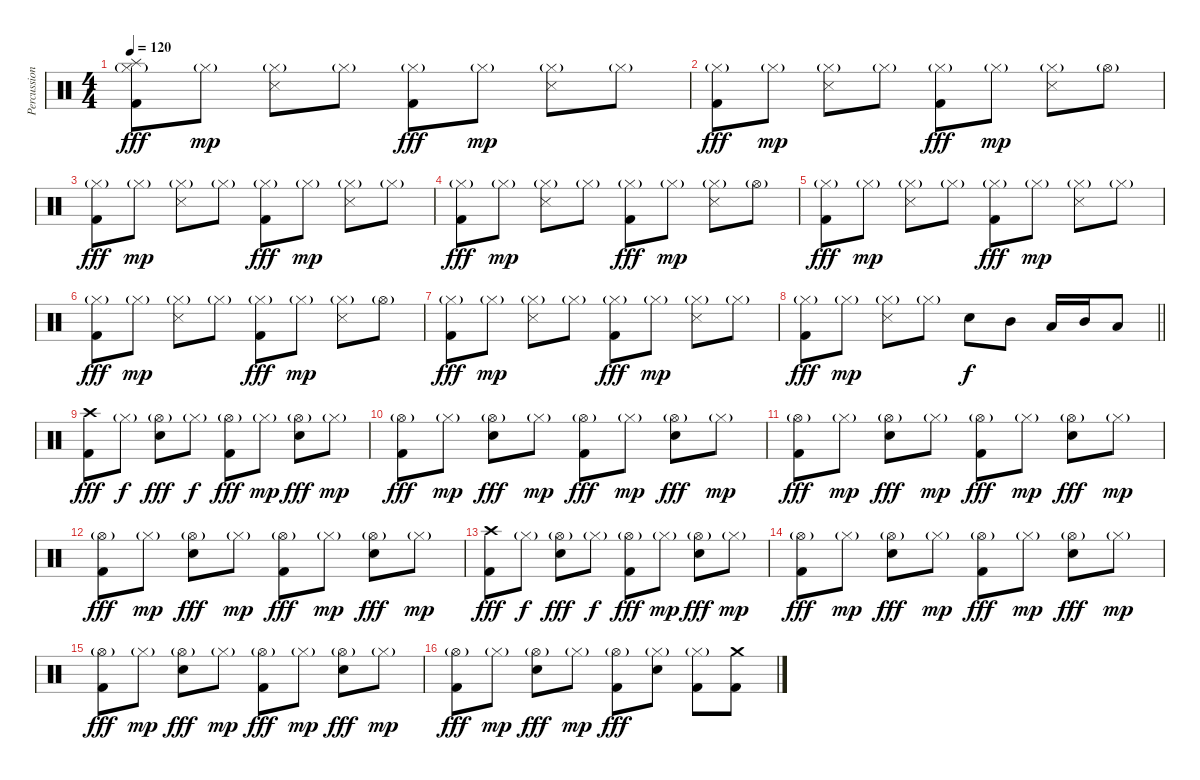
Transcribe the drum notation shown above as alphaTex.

\track ("Percussion" "Percussion") {instrument percussion}
\staff {score}
\articulation defaults
\ts (4 4)
\tempo 120
\clef neutral
\ks c
("Splash (hit)" "Hi-Hat (closed)"{g} "Kick (hit) 2").8{dy fff} "Hi-Hat (closed)"{g}.8{dy mp} ("Hi-Hat (closed)"{g} "Snare (side stick) 3").8 "Hi-Hat (closed)"{g}.8 ("Hi-Hat (closed)"{g} "Kick (hit) 2").8{dy fff} "Hi-Hat (closed)"{g}.8{dy mp} ("Hi-Hat (closed)"{g} "Snare (side stick) 3").8 "Hi-Hat (closed)"{g}.8 |
("Hi-Hat (closed)"{g} "Kick (hit) 2").8{dy fff} "Hi-Hat (closed)"{g}.8{dy mp} ("Hi-Hat (closed)"{g} "Snare (side stick) 3").8 "Hi-Hat (closed)"{g}.8 ("Hi-Hat (closed)"{g} "Kick (hit) 2").8{dy fff} "Hi-Hat (closed)"{g}.8{dy mp} ("Hi-Hat (closed)"{g} "Snare (side stick) 3").8 "Hi-Hat (open)"{g}.8 |
("Hi-Hat (closed)"{g} "Kick (hit) 2").8{dy fff} "Hi-Hat (closed)"{g}.8{dy mp} ("Hi-Hat (closed)"{g} "Snare (side stick) 3").8 "Hi-Hat (closed)"{g}.8 ("Hi-Hat (closed)"{g} "Kick (hit) 2").8{dy fff} "Hi-Hat (closed)"{g}.8{dy mp} ("Hi-Hat (closed)"{g} "Snare (side stick) 3").8 "Hi-Hat (closed)"{g}.8 |
("Hi-Hat (closed)"{g} "Kick (hit) 2").8{dy fff} "Hi-Hat (closed)"{g}.8{dy mp} ("Hi-Hat (closed)"{g} "Snare (side stick) 3").8 "Hi-Hat (closed)"{g}.8 ("Hi-Hat (closed)"{g} "Kick (hit) 2").8{dy fff} "Hi-Hat (closed)"{g}.8{dy mp} ("Hi-Hat (closed)"{g} "Snare (side stick) 3").8 "Hi-Hat (open)"{g}.8 |
("Hi-Hat (closed)"{g} "Kick (hit) 2").8{dy fff} "Hi-Hat (closed)"{g}.8{dy mp} ("Hi-Hat (closed)"{g} "Snare (side stick) 3").8 "Hi-Hat (closed)"{g}.8 ("Hi-Hat (closed)"{g} "Kick (hit) 2").8{dy fff} "Hi-Hat (closed)"{g}.8{dy mp} ("Hi-Hat (closed)"{g} "Snare (side stick) 3").8 "Hi-Hat (closed)"{g}.8 |
("Hi-Hat (closed)"{g} "Kick (hit) 2").8{dy fff} "Hi-Hat (closed)"{g}.8{dy mp} ("Hi-Hat (closed)"{g} "Snare (side stick) 3").8 "Hi-Hat (closed)"{g}.8 ("Hi-Hat (closed)"{g} "Kick (hit) 2").8{dy fff} "Hi-Hat (closed)"{g}.8{dy mp} ("Hi-Hat (closed)"{g} "Snare (side stick) 3").8 "Hi-Hat (open)"{g}.8 |
("Hi-Hat (closed)"{g} "Kick (hit) 2").8{dy fff} "Hi-Hat (closed)"{g}.8{dy mp} ("Hi-Hat (closed)"{g} "Snare (side stick) 3").8 "Hi-Hat (closed)"{g}.8 ("Hi-Hat (closed)"{g} "Kick (hit) 2").8{dy fff} "Hi-Hat (closed)"{g}.8{dy mp} ("Hi-Hat (closed)"{g} "Snare (side stick) 3").8 "Hi-Hat (closed)"{g}.8 |
\barLineRight lightlight
("Hi-Hat (closed)"{g} "Kick (hit) 2").8{dy fff} "Hi-Hat (closed)"{g}.8{dy mp} ("Hi-Hat (closed)"{g} "Snare (side stick) 3").8 "Hi-Hat (closed)"{g}.8 "Snare (hit) 2".8{dy f} "Mid Tom (hit)".8 "Low Tom (hit)".16 "Mid Tom (hit)".16 "Low Tom (hit)".8 |
("Crash high (hit)" "Kick (hit) 2").8{dy fff} "Hi-Hat (closed)"{g}.8{dy f} ("Hi-Hat (open)"{g} "Electric Snare (hit)").8{dy fff} "Hi-Hat (closed)"{g}.8{dy f} ("Hi-Hat (open)"{g} "Kick (hit) 2").8{dy fff} "Hi-Hat (closed)"{g}.8{dy mp} ("Hi-Hat (open)"{g} "Electric Snare (hit)").8{dy fff} "Hi-Hat (closed)"{g}.8{dy mp} |
("Hi-Hat (open)"{g} "Kick (hit) 2").8{dy fff} "Hi-Hat (closed)"{g}.8{dy mp} ("Hi-Hat (open)"{g} "Electric Snare (hit)").8{dy fff} "Hi-Hat (closed)"{g}.8{dy mp} ("Hi-Hat (open)"{g} "Kick (hit) 2").8{dy fff} "Hi-Hat (closed)"{g}.8{dy mp} ("Hi-Hat (open)"{g} "Electric Snare (hit)").8{dy fff} "Hi-Hat (closed)"{g}.8{dy mp} |
("Hi-Hat (open)"{g} "Kick (hit) 2").8{dy fff} "Hi-Hat (closed)"{g}.8{dy mp} ("Hi-Hat (open)"{g} "Electric Snare (hit)").8{dy fff} "Hi-Hat (closed)"{g}.8{dy mp} ("Hi-Hat (open)"{g} "Kick (hit) 2").8{dy fff} "Hi-Hat (closed)"{g}.8{dy mp} ("Hi-Hat (open)"{g} "Electric Snare (hit)").8{dy fff} "Hi-Hat (closed)"{g}.8{dy mp} |
("Hi-Hat (open)"{g} "Kick (hit) 2").8{dy fff} "Hi-Hat (closed)"{g}.8{dy mp} ("Hi-Hat (open)"{g} "Electric Snare (hit)").8{dy fff} "Hi-Hat (closed)"{g}.8{dy mp} ("Hi-Hat (open)"{g} "Kick (hit) 2").8{dy fff} "Hi-Hat (closed)"{g}.8{dy mp} ("Hi-Hat (open)"{g} "Electric Snare (hit)").8{dy fff} "Hi-Hat (closed)"{g}.8{dy mp} |
("Crash high (hit)" "Kick (hit) 2").8{dy fff} "Hi-Hat (closed)"{g}.8{dy f} ("Hi-Hat (open)"{g} "Electric Snare (hit)").8{dy fff} "Hi-Hat (closed)"{g}.8{dy f} ("Hi-Hat (open)"{g} "Kick (hit) 2").8{dy fff} "Hi-Hat (closed)"{g}.8{dy mp} ("Hi-Hat (open)"{g} "Electric Snare (hit)").8{dy fff} "Hi-Hat (closed)"{g}.8{dy mp} |
("Hi-Hat (open)"{g} "Kick (hit) 2").8{dy fff} "Hi-Hat (closed)"{g}.8{dy mp} ("Hi-Hat (open)"{g} "Electric Snare (hit)").8{dy fff} "Hi-Hat (closed)"{g}.8{dy mp} ("Hi-Hat (open)"{g} "Kick (hit) 2").8{dy fff} "Hi-Hat (closed)"{g}.8{dy mp} ("Hi-Hat (open)"{g} "Electric Snare (hit)").8{dy fff} "Hi-Hat (closed)"{g}.8{dy mp} |
("Hi-Hat (open)"{g} "Kick (hit) 2").8{dy fff} "Hi-Hat (closed)"{g}.8{dy mp} ("Hi-Hat (open)"{g} "Electric Snare (hit)").8{dy fff} "Hi-Hat (closed)"{g}.8{dy mp} ("Hi-Hat (open)"{g} "Kick (hit) 2").8{dy fff} "Hi-Hat (closed)"{g}.8{dy mp} ("Hi-Hat (open)"{g} "Electric Snare (hit)").8{dy fff} "Hi-Hat (closed)"{g}.8{dy mp} |
("Hi-Hat (open)"{g} "Kick (hit) 2").8{dy fff} "Hi-Hat (closed)"{g}.8{dy mp} ("Hi-Hat (open)"{g} "Electric Snare (hit)").8{dy fff} "Hi-Hat (closed)"{g}.8{dy mp} ("Hi-Hat (open)"{g} "Kick (hit) 2").8{dy fff} ("Hi-Hat (closed)"{g} "Electric Snare (hit)").8 ("Hi-Hat (closed)"{g} "Kick (hit) 2").8 ("Crash medium (hit)" "Kick (hit) 2").8
